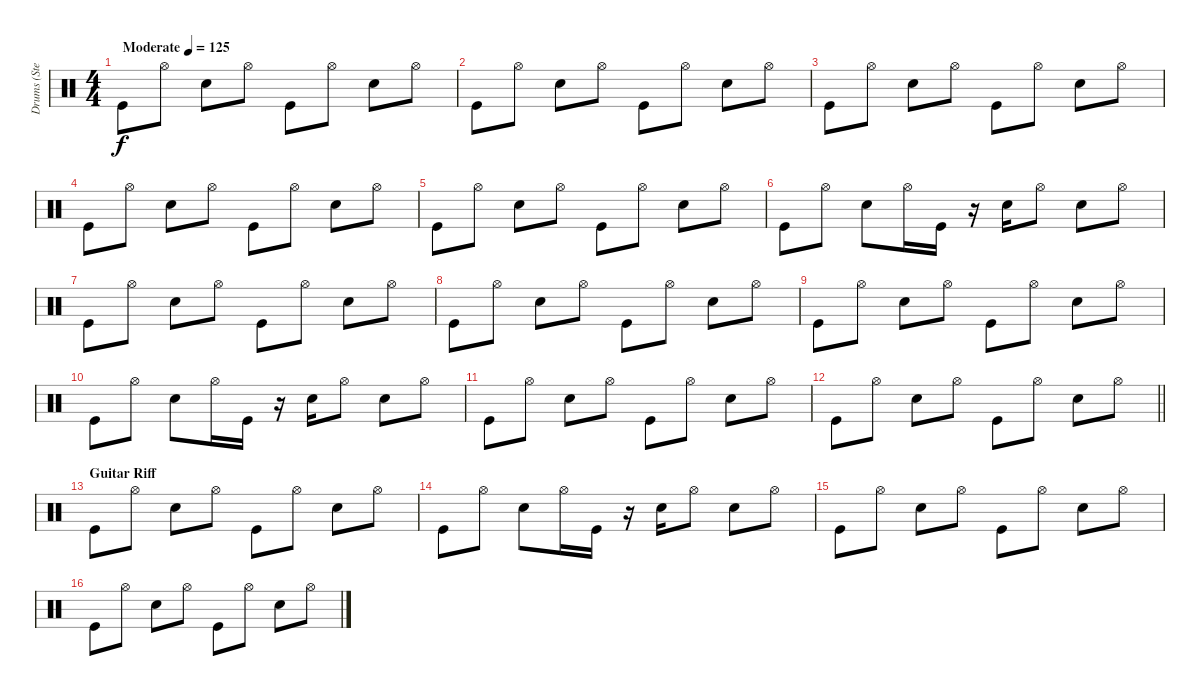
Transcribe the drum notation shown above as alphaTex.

\track ("Drums (Stephen Morris)" "Drums (Ste") {instrument percussion}
\staff {score}
\articulation defaults
\ts (4 4)
\tempo (125 "Moderate")
\clef neutral
\ks c "Kick (hit)".8{dy f} "Hi-Hat (open)".8 "Electric Snare (hit)".8 "Hi-Hat (open)".8 "Kick (hit)".8 "Hi-Hat (open)".8 "Electric Snare (hit)".8 "Hi-Hat (open)".8
|
"Kick (hit)".8 "Hi-Hat (open)".8 "Electric Snare (hit)".8 "Hi-Hat (open)".8 "Kick (hit)".8 "Hi-Hat (open)".8 "Electric Snare (hit)".8 "Hi-Hat (open)".8 |
"Kick (hit)".8 "Hi-Hat (open)".8 "Electric Snare (hit)".8 "Hi-Hat (open)".8 "Kick (hit)".8 "Hi-Hat (open)".8 "Electric Snare (hit)".8 "Hi-Hat (open)".8 |
"Kick (hit)".8 "Hi-Hat (open)".8 "Electric Snare (hit)".8 "Hi-Hat (open)".8 "Kick (hit)".8 "Hi-Hat (open)".8 "Electric Snare (hit)".8 "Hi-Hat (open)".8 |
"Kick (hit)".8{volume 13} "Hi-Hat (open)".8 "Electric Snare (hit)".8 "Hi-Hat (open)".8 "Kick (hit)".8 "Hi-Hat (open)".8 "Electric Snare (hit)".8 "Hi-Hat (open)".8 |
"Kick (hit)".8 "Hi-Hat (open)".8 "Electric Snare (hit)".8 "Hi-Hat (open)".16 "Kick (hit)".16 r.16 "Electric Snare (hit)".16 "Hi-Hat (open)".8 "Electric Snare (hit)".8 "Hi-Hat (open)".8 |
"Kick (hit)".8 "Hi-Hat (open)".8 "Electric Snare (hit)".8 "Hi-Hat (open)".8 "Kick (hit)".8 "Hi-Hat (open)".8 "Electric Snare (hit)".8 "Hi-Hat (open)".8 |
"Kick (hit)".8 "Hi-Hat (open)".8 "Electric Snare (hit)".8 "Hi-Hat (open)".8 "Kick (hit)".8 "Hi-Hat (open)".8 "Electric Snare (hit)".8 "Hi-Hat (open)".8 |
"Kick (hit)".8 "Hi-Hat (open)".8 "Electric Snare (hit)".8 "Hi-Hat (open)".8 "Kick (hit)".8 "Hi-Hat (open)".8 "Electric Snare (hit)".8 "Hi-Hat (open)".8 |
"Kick (hit)".8 "Hi-Hat (open)".8 "Electric Snare (hit)".8 "Hi-Hat (open)".16 "Kick (hit)".16 r.16 "Electric Snare (hit)".16 "Hi-Hat (open)".8 "Electric Snare (hit)".8 "Hi-Hat (open)".8 |
"Kick (hit)".8 "Hi-Hat (open)".8 "Electric Snare (hit)".8 "Hi-Hat (open)".8 "Kick (hit)".8 "Hi-Hat (open)".8 "Electric Snare (hit)".8 "Hi-Hat (open)".8 |
\barLineRight lightlight "Kick (hit)".8 "Hi-Hat (open)".8 "Electric Snare (hit)".8 "Hi-Hat (open)".8 "Kick (hit)".8 "Hi-Hat (open)".8 "Electric Snare (hit)".8 "Hi-Hat (open)".8
|
\section ("" "Guitar Riff")
"Kick (hit)".8 "Hi-Hat (open)".8 "Electric Snare (hit)".8 "Hi-Hat (open)".8 "Kick (hit)".8 "Hi-Hat (open)".8 "Electric Snare (hit)".8 "Hi-Hat (open)".8 |
"Kick (hit)".8 "Hi-Hat (open)".8 "Electric Snare (hit)".8 "Hi-Hat (open)".16 "Kick (hit)".16 r.16 "Electric Snare (hit)".16 "Hi-Hat (open)".8 "Electric Snare (hit)".8 "Hi-Hat (open)".8 |
"Kick (hit)".8 "Hi-Hat (open)".8 "Electric Snare (hit)".8 "Hi-Hat (open)".8 "Kick (hit)".8 "Hi-Hat (open)".8 "Electric Snare (hit)".8 "Hi-Hat (open)".8 |
"Kick (hit)".8 "Hi-Hat (open)".8 "Electric Snare (hit)".8 "Hi-Hat (open)".8 "Kick (hit)".8 "Hi-Hat (open)".8 "Electric Snare (hit)".8 "Hi-Hat (open)".8
